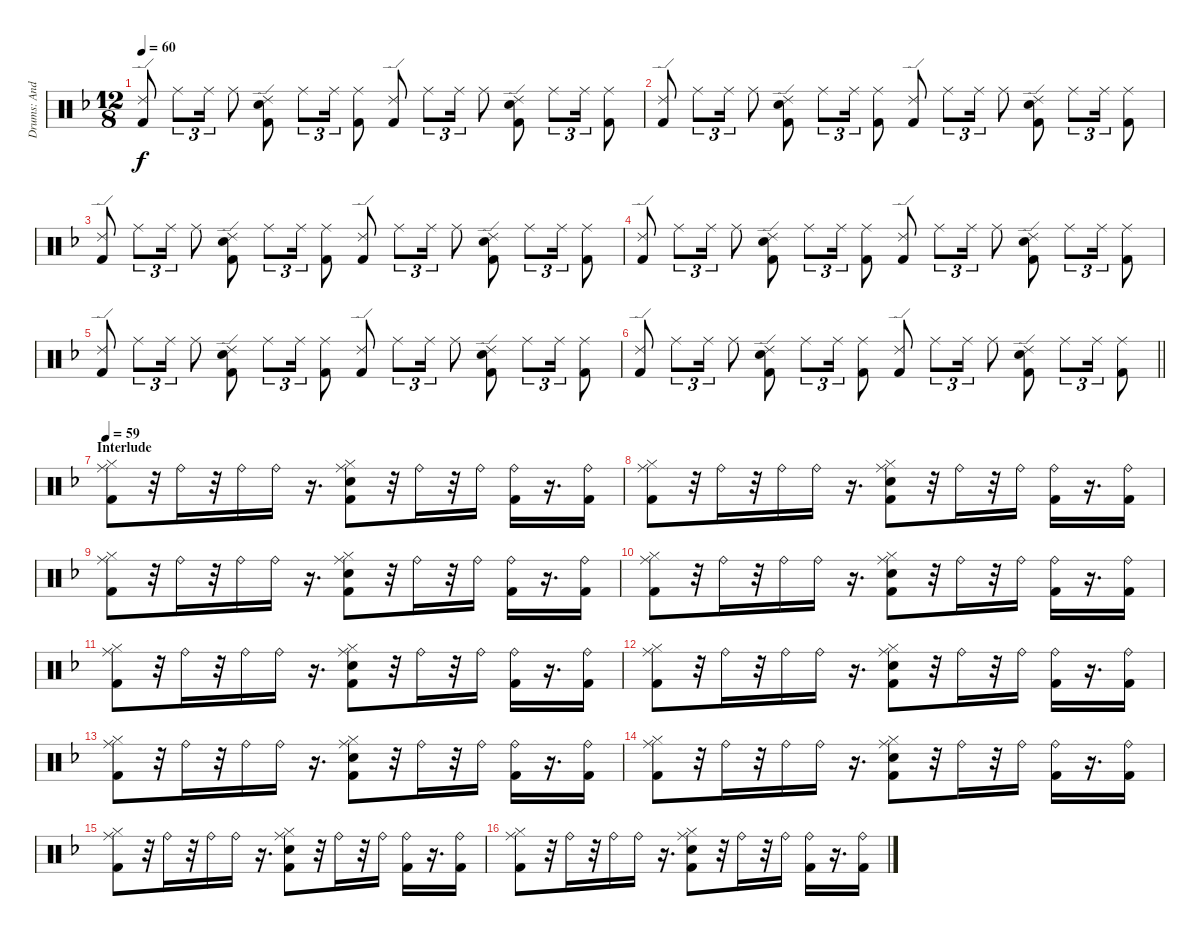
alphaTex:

\track ("Drums: Andy" "Drums: And") {instrument percussion}
\staff {score}
\articulation defaults
\ts (12 8)
\tempo 60
\clef neutral
\ks f
("Ride (edge) 2" "Kick (hit) 2").8{dy f} "Ride (middle)".8{tu (3 2)} "Ride (middle)".16{tu (3 2)} "Ride (middle)".8 ("Ride (edge) 2" "Electric Snare (hit)" "Kick (hit) 2").8 "Ride (middle)".8{tu (3 2)} "Ride (middle)".16{tu (3 2)} ("Ride (middle)" "Kick (hit) 2").8 ("Ride (edge) 2" "Kick (hit) 2").8 "Ride (middle)".8{tu (3 2)} "Ride (middle)".16{tu (3 2)} "Ride (middle)".8 ("Ride (edge) 2" "Electric Snare (hit)" "Kick (hit) 2").8 "Ride (middle)".8{tu (3 2)} "Ride (middle)".16{tu (3 2)} ("Ride (middle)" "Kick (hit) 2").8 |
("Ride (edge) 2" "Kick (hit) 2").8 "Ride (middle)".8{tu (3 2)} "Ride (middle)".16{tu (3 2)} "Ride (middle)".8 ("Ride (edge) 2" "Electric Snare (hit)" "Kick (hit) 2").8 "Ride (middle)".8{tu (3 2)} "Ride (middle)".16{tu (3 2)} ("Ride (middle)" "Kick (hit) 2").8 ("Ride (edge) 2" "Kick (hit) 2").8 "Ride (middle)".8{tu (3 2)} "Ride (middle)".16{tu (3 2)} "Ride (middle)".8 ("Ride (edge) 2" "Electric Snare (hit)" "Kick (hit) 2").8 "Ride (middle)".8{tu (3 2)} "Ride (middle)".16{tu (3 2)} ("Ride (middle)" "Kick (hit) 2").8 |
("Ride (edge) 2" "Kick (hit) 2").8 "Ride (middle)".8{tu (3 2)} "Ride (middle)".16{tu (3 2)} "Ride (middle)".8 ("Ride (edge) 2" "Electric Snare (hit)" "Kick (hit) 2").8 "Ride (middle)".8{tu (3 2)} "Ride (middle)".16{tu (3 2)} ("Ride (middle)" "Kick (hit) 2").8 ("Ride (edge) 2" "Kick (hit) 2").8 "Ride (middle)".8{tu (3 2)} "Ride (middle)".16{tu (3 2)} "Ride (middle)".8 ("Ride (edge) 2" "Electric Snare (hit)" "Kick (hit) 2").8 "Ride (middle)".8{tu (3 2)} "Ride (middle)".16{tu (3 2)} ("Ride (middle)" "Kick (hit) 2").8 |
("Ride (edge) 2" "Kick (hit) 2").8 "Ride (middle)".8{tu (3 2)} "Ride (middle)".16{tu (3 2)} "Ride (middle)".8 ("Ride (edge) 2" "Electric Snare (hit)" "Kick (hit) 2").8 "Ride (middle)".8{tu (3 2)} "Ride (middle)".16{tu (3 2)} ("Ride (middle)" "Kick (hit) 2").8 ("Ride (edge) 2" "Kick (hit) 2").8 "Ride (middle)".8{tu (3 2)} "Ride (middle)".16{tu (3 2)} "Ride (middle)".8 ("Ride (edge) 2" "Electric Snare (hit)" "Kick (hit) 2").8 "Ride (middle)".8{tu (3 2)} "Ride (middle)".16{tu (3 2)} ("Ride (middle)" "Kick (hit) 2").8 |
("Ride (edge) 2" "Kick (hit) 2").8 "Ride (middle)".8{tu (3 2)} "Ride (middle)".16{tu (3 2)} "Ride (middle)".8 ("Ride (edge) 2" "Electric Snare (hit)" "Kick (hit) 2").8 "Ride (middle)".8{tu (3 2)} "Ride (middle)".16{tu (3 2)} ("Ride (middle)" "Kick (hit) 2").8 ("Ride (edge) 2" "Kick (hit) 2").8 "Ride (middle)".8{tu (3 2)} "Ride (middle)".16{tu (3 2)} "Ride (middle)".8 ("Ride (edge) 2" "Electric Snare (hit)" "Kick (hit) 2").8 "Ride (middle)".8{tu (3 2)} "Ride (middle)".16{tu (3 2)} ("Ride (middle)" "Kick (hit) 2").8 |
\barLineRight lightlight
("Ride (edge) 2" "Kick (hit) 2").8 "Ride (middle)".8{tu (3 2)} "Ride (middle)".16{tu (3 2)} "Ride (middle)".8 ("Ride (edge) 2" "Electric Snare (hit)" "Kick (hit) 2").8 "Ride (middle)".8{tu (3 2)} "Ride (middle)".16{tu (3 2)} ("Ride (middle)" "Kick (hit) 2").8 ("Ride (edge) 2" "Kick (hit) 2").8 "Ride (middle)".8{tu (3 2)} "Ride (middle)".16{tu (3 2)} "Ride (middle)".8 ("Ride (edge) 2" "Electric Snare (hit)" "Kick (hit) 2").8 "Ride (middle)".8{tu (3 2)} "Ride (middle)".16{tu (3 2)} ("Ride (middle)" "Kick (hit) 2").8 |
\section ("" "Interlude")
\tempo 59
("Ride (middle)" "Hi-Hat (closed)" "Kick (hit) 2").8 r.32 "Ride (bell)".16 r.32 "Ride (bell)".16 "Ride (bell)".16 r.16{d} ("Ride (middle)" "Hi-Hat (closed)" "Snare (hit) 2" "Kick (hit) 2").8 r.32 "Ride (bell)".16 r.32 "Ride (bell)".16 ("Ride (bell)" "Kick (hit) 2").16 r.16{d} ("Ride (bell)" "Kick (hit) 2").16 |
("Ride (middle)" "Hi-Hat (closed)" "Kick (hit) 2").8 r.32 "Ride (bell)".16 r.32 "Ride (bell)".16 "Ride (bell)".16 r.16{d} ("Ride (middle)" "Hi-Hat (closed)" "Snare (hit) 2" "Kick (hit) 2").8 r.32 "Ride (bell)".16 r.32 "Ride (bell)".16 ("Ride (bell)" "Kick (hit) 2").16 r.16{d} ("Ride (bell)" "Kick (hit) 2").16 |
("Ride (middle)" "Hi-Hat (closed)" "Kick (hit) 2").8 r.32 "Ride (bell)".16 r.32 "Ride (bell)".16 "Ride (bell)".16 r.16{d} ("Ride (middle)" "Hi-Hat (closed)" "Snare (hit) 2" "Kick (hit) 2").8 r.32 "Ride (bell)".16 r.32 "Ride (bell)".16 ("Ride (bell)" "Kick (hit) 2").16 r.16{d} ("Ride (bell)" "Kick (hit) 2").16 |
("Ride (middle)" "Hi-Hat (closed)" "Kick (hit) 2").8 r.32 "Ride (bell)".16 r.32 "Ride (bell)".16 "Ride (bell)".16 r.16{d} ("Ride (middle)" "Hi-Hat (closed)" "Snare (hit) 2" "Kick (hit) 2").8 r.32 "Ride (bell)".16 r.32 "Ride (bell)".16 ("Ride (bell)" "Kick (hit) 2").16 r.16{d} ("Ride (bell)" "Kick (hit) 2").16 |
("Ride (middle)" "Hi-Hat (closed)" "Kick (hit) 2").8 r.32 "Ride (bell)".16 r.32 "Ride (bell)".16 "Ride (bell)".16 r.16{d} ("Ride (middle)" "Hi-Hat (closed)" "Snare (hit) 2" "Kick (hit) 2").8 r.32 "Ride (bell)".16 r.32 "Ride (bell)".16 ("Ride (bell)" "Kick (hit) 2").16 r.16{d} ("Ride (bell)" "Kick (hit) 2").16 |
("Ride (middle)" "Hi-Hat (closed)" "Kick (hit) 2").8 r.32 "Ride (bell)".16 r.32 "Ride (bell)".16 "Ride (bell)".16 r.16{d} ("Ride (middle)" "Hi-Hat (closed)" "Snare (hit) 2" "Kick (hit) 2").8 r.32 "Ride (bell)".16 r.32 "Ride (bell)".16 ("Ride (bell)" "Kick (hit) 2").16 r.16{d} ("Ride (bell)" "Kick (hit) 2").16 |
("Ride (middle)" "Hi-Hat (closed)" "Kick (hit) 2").8 r.32 "Ride (bell)".16 r.32 "Ride (bell)".16 "Ride (bell)".16 r.16{d} ("Ride (middle)" "Hi-Hat (closed)" "Snare (hit) 2" "Kick (hit) 2").8 r.32 "Ride (bell)".16 r.32 "Ride (bell)".16 ("Ride (bell)" "Kick (hit) 2").16 r.16{d} ("Ride (bell)" "Kick (hit) 2").16 |
("Ride (middle)" "Hi-Hat (closed)" "Kick (hit) 2").8 r.32 "Ride (bell)".16 r.32 "Ride (bell)".16 "Ride (bell)".16 r.16{d} ("Ride (middle)" "Hi-Hat (closed)" "Snare (hit) 2" "Kick (hit) 2").8 r.32 "Ride (bell)".16 r.32 "Ride (bell)".16 ("Ride (bell)" "Kick (hit) 2").16 r.16{d} ("Ride (bell)" "Kick (hit) 2").16 |
("Ride (middle)" "Hi-Hat (closed)" "Kick (hit) 2").8 r.32 "Ride (bell)".16 r.32 "Ride (bell)".16 "Ride (bell)".16 r.16{d} ("Ride (middle)" "Hi-Hat (closed)" "Snare (hit) 2" "Kick (hit) 2").8 r.32 "Ride (bell)".16 r.32 "Ride (bell)".16 ("Ride (bell)" "Kick (hit) 2").16 r.16{d} ("Ride (bell)" "Kick (hit) 2").16 |
("Ride (middle)" "Hi-Hat (closed)" "Kick (hit) 2").8 r.32 "Ride (bell)".16 r.32 "Ride (bell)".16 "Ride (bell)".16 r.16{d} ("Ride (middle)" "Hi-Hat (closed)" "Snare (hit) 2" "Kick (hit) 2").8 r.32 "Ride (bell)".16 r.32 "Ride (bell)".16 ("Ride (bell)" "Kick (hit) 2").16 r.16{d} ("Ride (bell)" "Kick (hit) 2").16
